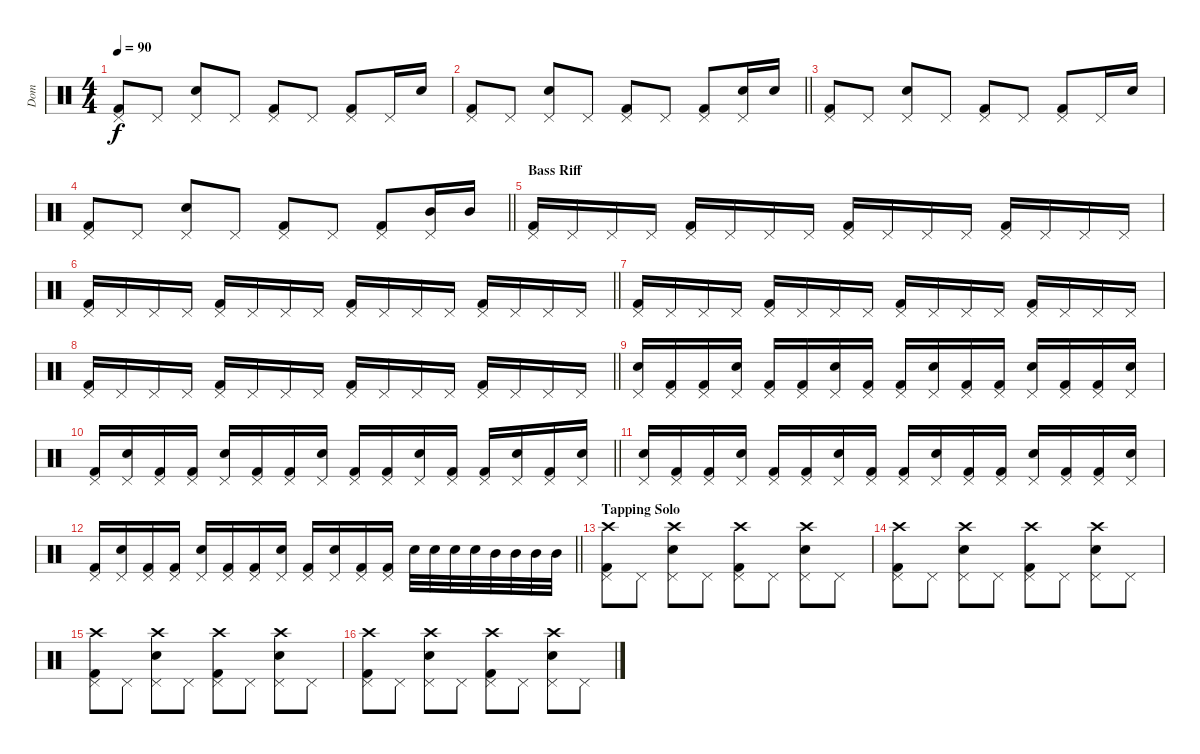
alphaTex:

\track ("Dom" "Dom") {instrument percussion}
\staff {score}
\articulation defaults
\ts (4 4)
\tempo 90
\clef neutral
\ks c
("Pedal Hi-Hat (hit)" "Kick (hit) 2").8{dy f} "Pedal Hi-Hat (hit)".8 ("Pedal Hi-Hat (hit)" "Electric Snare (hit)").8 "Pedal Hi-Hat (hit)".8 ("Pedal Hi-Hat (hit)" "Kick (hit) 2").8 "Pedal Hi-Hat (hit)".8 ("Pedal Hi-Hat (hit)" "Kick (hit) 2").8 "Pedal Hi-Hat (hit)".16 "Electric Snare (hit)".16 |
\barLineRight lightlight
("Pedal Hi-Hat (hit)" "Kick (hit) 2").8 "Pedal Hi-Hat (hit)".8 ("Pedal Hi-Hat (hit)" "Electric Snare (hit)").8 "Pedal Hi-Hat (hit)".8 ("Pedal Hi-Hat (hit)" "Kick (hit) 2").8 "Pedal Hi-Hat (hit)".8 ("Pedal Hi-Hat (hit)" "Kick (hit) 2").8 ("Pedal Hi-Hat (hit)" "Electric Snare (hit)").16 "Electric Snare (hit)".16 |
("Pedal Hi-Hat (hit)" "Kick (hit) 2").8 "Pedal Hi-Hat (hit)".8 ("Pedal Hi-Hat (hit)" "Electric Snare (hit)").8 "Pedal Hi-Hat (hit)".8 ("Pedal Hi-Hat (hit)" "Kick (hit) 2").8 "Pedal Hi-Hat (hit)".8 ("Pedal Hi-Hat (hit)" "Kick (hit) 2").8 "Pedal Hi-Hat (hit)".16 "Electric Snare (hit)".16 |
\barLineRight lightlight
("Pedal Hi-Hat (hit)" "Kick (hit) 2").8 "Pedal Hi-Hat (hit)".8 ("Pedal Hi-Hat (hit)" "Electric Snare (hit)").8 "Pedal Hi-Hat (hit)".8 ("Pedal Hi-Hat (hit)" "Kick (hit) 2").8 "Pedal Hi-Hat (hit)".8 ("Pedal Hi-Hat (hit)" "Kick (hit) 2").8 ("Pedal Hi-Hat (hit)" "Mid Tom (hit)").16 "Mid Tom (hit)".16 |
\section ("" "Bass Riff")
("Pedal Hi-Hat (hit)" "Kick (hit) 2").16 "Pedal Hi-Hat (hit)".16 "Pedal Hi-Hat (hit)".16 "Pedal Hi-Hat (hit)".16 ("Pedal Hi-Hat (hit)" "Kick (hit) 2").16 "Pedal Hi-Hat (hit)".16 "Pedal Hi-Hat (hit)".16 "Pedal Hi-Hat (hit)".16 ("Pedal Hi-Hat (hit)" "Kick (hit) 2").16 "Pedal Hi-Hat (hit)".16 "Pedal Hi-Hat (hit)".16 "Pedal Hi-Hat (hit)".16 ("Pedal Hi-Hat (hit)" "Kick (hit) 2").16 "Pedal Hi-Hat (hit)".16 "Pedal Hi-Hat (hit)".16 "Pedal Hi-Hat (hit)".16 |
\barLineRight lightlight
("Pedal Hi-Hat (hit)" "Kick (hit) 2").16 "Pedal Hi-Hat (hit)".16 "Pedal Hi-Hat (hit)".16 "Pedal Hi-Hat (hit)".16 ("Pedal Hi-Hat (hit)" "Kick (hit) 2").16 "Pedal Hi-Hat (hit)".16 "Pedal Hi-Hat (hit)".16 "Pedal Hi-Hat (hit)".16 ("Pedal Hi-Hat (hit)" "Kick (hit) 2").16 "Pedal Hi-Hat (hit)".16 "Pedal Hi-Hat (hit)".16 "Pedal Hi-Hat (hit)".16 ("Pedal Hi-Hat (hit)" "Kick (hit) 2").16 "Pedal Hi-Hat (hit)".16 "Pedal Hi-Hat (hit)".16 "Pedal Hi-Hat (hit)".16 |
("Pedal Hi-Hat (hit)" "Kick (hit) 2").16 "Pedal Hi-Hat (hit)".16 "Pedal Hi-Hat (hit)".16 "Pedal Hi-Hat (hit)".16 ("Pedal Hi-Hat (hit)" "Kick (hit) 2").16 "Pedal Hi-Hat (hit)".16 "Pedal Hi-Hat (hit)".16 "Pedal Hi-Hat (hit)".16 ("Pedal Hi-Hat (hit)" "Kick (hit) 2").16 "Pedal Hi-Hat (hit)".16 "Pedal Hi-Hat (hit)".16 "Pedal Hi-Hat (hit)".16 ("Pedal Hi-Hat (hit)" "Kick (hit) 2").16 "Pedal Hi-Hat (hit)".16 "Pedal Hi-Hat (hit)".16 "Pedal Hi-Hat (hit)".16 |
\barLineRight lightlight
("Pedal Hi-Hat (hit)" "Kick (hit) 2").16 "Pedal Hi-Hat (hit)".16 "Pedal Hi-Hat (hit)".16 "Pedal Hi-Hat (hit)".16 ("Pedal Hi-Hat (hit)" "Kick (hit) 2").16 "Pedal Hi-Hat (hit)".16 "Pedal Hi-Hat (hit)".16 "Pedal Hi-Hat (hit)".16 ("Pedal Hi-Hat (hit)" "Kick (hit) 2").16 "Pedal Hi-Hat (hit)".16 "Pedal Hi-Hat (hit)".16 "Pedal Hi-Hat (hit)".16 ("Pedal Hi-Hat (hit)" "Kick (hit) 2").16 "Pedal Hi-Hat (hit)".16 "Pedal Hi-Hat (hit)".16 "Pedal Hi-Hat (hit)".16 |
("Pedal Hi-Hat (hit)" "Electric Snare (hit)").16 ("Pedal Hi-Hat (hit)" "Kick (hit) 2").16 ("Pedal Hi-Hat (hit)" "Kick (hit) 2").16 ("Pedal Hi-Hat (hit)" "Electric Snare (hit)").16 ("Pedal Hi-Hat (hit)" "Kick (hit) 2").16 ("Pedal Hi-Hat (hit)" "Kick (hit) 2").16 ("Pedal Hi-Hat (hit)" "Electric Snare (hit)").16 ("Pedal Hi-Hat (hit)" "Kick (hit) 2").16 ("Pedal Hi-Hat (hit)" "Kick (hit) 2").16 ("Pedal Hi-Hat (hit)" "Electric Snare (hit)").16 ("Pedal Hi-Hat (hit)" "Kick (hit) 2").16 ("Pedal Hi-Hat (hit)" "Kick (hit) 2").16 ("Pedal Hi-Hat (hit)" "Electric Snare (hit)").16 ("Pedal Hi-Hat (hit)" "Kick (hit) 2").16 ("Pedal Hi-Hat (hit)" "Kick (hit) 2").16 ("Pedal Hi-Hat (hit)" "Electric Snare (hit)").16 |
\barLineRight lightlight
("Pedal Hi-Hat (hit)" "Kick (hit) 2").16 ("Pedal Hi-Hat (hit)" "Electric Snare (hit)").16 ("Pedal Hi-Hat (hit)" "Kick (hit) 2").16 ("Pedal Hi-Hat (hit)" "Kick (hit) 2").16 ("Pedal Hi-Hat (hit)" "Electric Snare (hit)").16 ("Pedal Hi-Hat (hit)" "Kick (hit) 2").16 ("Pedal Hi-Hat (hit)" "Kick (hit) 2").16 ("Pedal Hi-Hat (hit)" "Electric Snare (hit)").16 ("Pedal Hi-Hat (hit)" "Kick (hit) 2").16 ("Pedal Hi-Hat (hit)" "Kick (hit) 2").16 ("Pedal Hi-Hat (hit)" "Electric Snare (hit)").16 ("Pedal Hi-Hat (hit)" "Kick (hit) 2").16 ("Pedal Hi-Hat (hit)" "Kick (hit) 2").16 ("Pedal Hi-Hat (hit)" "Electric Snare (hit)").16 ("Pedal Hi-Hat (hit)" "Kick (hit) 2").16 ("Pedal Hi-Hat (hit)" "Electric Snare (hit)").16 |
("Pedal Hi-Hat (hit)" "Electric Snare (hit)").16 ("Pedal Hi-Hat (hit)" "Kick (hit) 2").16 ("Pedal Hi-Hat (hit)" "Kick (hit) 2").16 ("Pedal Hi-Hat (hit)" "Electric Snare (hit)").16 ("Pedal Hi-Hat (hit)" "Kick (hit) 2").16 ("Pedal Hi-Hat (hit)" "Kick (hit) 2").16 ("Pedal Hi-Hat (hit)" "Electric Snare (hit)").16 ("Pedal Hi-Hat (hit)" "Kick (hit) 2").16 ("Pedal Hi-Hat (hit)" "Kick (hit) 2").16 ("Pedal Hi-Hat (hit)" "Electric Snare (hit)").16 ("Pedal Hi-Hat (hit)" "Kick (hit) 2").16 ("Pedal Hi-Hat (hit)" "Kick (hit) 2").16 ("Pedal Hi-Hat (hit)" "Electric Snare (hit)").16 ("Pedal Hi-Hat (hit)" "Kick (hit) 2").16 ("Pedal Hi-Hat (hit)" "Kick (hit) 2").16 ("Pedal Hi-Hat (hit)" "Electric Snare (hit)").16 |
\barLineRight lightlight
("Pedal Hi-Hat (hit)" "Kick (hit) 2").16 ("Pedal Hi-Hat (hit)" "Electric Snare (hit)").16 ("Pedal Hi-Hat (hit)" "Kick (hit) 2").16 ("Pedal Hi-Hat (hit)" "Kick (hit) 2").16 ("Pedal Hi-Hat (hit)" "Electric Snare (hit)").16 ("Pedal Hi-Hat (hit)" "Kick (hit) 2").16 ("Pedal Hi-Hat (hit)" "Kick (hit) 2").16 ("Pedal Hi-Hat (hit)" "Electric Snare (hit)").16 ("Pedal Hi-Hat (hit)" "Kick (hit) 2").16 ("Pedal Hi-Hat (hit)" "Electric Snare (hit)").16 ("Pedal Hi-Hat (hit)" "Kick (hit) 2").16 ("Pedal Hi-Hat (hit)" "Kick (hit) 2").16 "Electric Snare (hit)".32 "Electric Snare (hit)".32 "Electric Snare (hit)".32 "Electric Snare (hit)".32 "Mid Tom (hit)".32 "Mid Tom (hit)".32 "Mid Tom (hit)".32 "Mid Tom (hit)".32 |
\section ("" "Tapping Solo")
("Crash high (hit)" "Pedal Hi-Hat (hit)" "Kick (hit) 2").8 "Pedal Hi-Hat (hit)".8 ("Crash high (hit)" "Pedal Hi-Hat (hit)" "Electric Snare (hit)").8 "Pedal Hi-Hat (hit)".8 ("Crash high (hit)" "Pedal Hi-Hat (hit)" "Kick (hit) 2").8 "Pedal Hi-Hat (hit)".8 ("Crash high (hit)" "Pedal Hi-Hat (hit)" "Electric Snare (hit)").8 "Pedal Hi-Hat (hit)".8 |
("Crash high (hit)" "Pedal Hi-Hat (hit)" "Kick (hit) 2").8 "Pedal Hi-Hat (hit)".8 ("Crash high (hit)" "Pedal Hi-Hat (hit)" "Electric Snare (hit)").8 "Pedal Hi-Hat (hit)".8 ("Crash high (hit)" "Pedal Hi-Hat (hit)" "Kick (hit) 2").8 "Pedal Hi-Hat (hit)".8 ("Crash high (hit)" "Pedal Hi-Hat (hit)" "Electric Snare (hit)").8 "Pedal Hi-Hat (hit)".8 |
("Crash high (hit)" "Pedal Hi-Hat (hit)" "Kick (hit) 2").8 "Pedal Hi-Hat (hit)".8 ("Crash high (hit)" "Pedal Hi-Hat (hit)" "Electric Snare (hit)").8 "Pedal Hi-Hat (hit)".8 ("Crash high (hit)" "Pedal Hi-Hat (hit)" "Kick (hit) 2").8 "Pedal Hi-Hat (hit)".8 ("Crash high (hit)" "Pedal Hi-Hat (hit)" "Electric Snare (hit)").8 "Pedal Hi-Hat (hit)".8 |
("Crash high (hit)" "Pedal Hi-Hat (hit)" "Kick (hit) 2").8 "Pedal Hi-Hat (hit)".8 ("Crash high (hit)" "Pedal Hi-Hat (hit)" "Electric Snare (hit)").8 "Pedal Hi-Hat (hit)".8 ("Crash high (hit)" "Pedal Hi-Hat (hit)" "Kick (hit) 2").8 "Pedal Hi-Hat (hit)".8 ("Crash high (hit)" "Pedal Hi-Hat (hit)" "Electric Snare (hit)").8 "Pedal Hi-Hat (hit)".8
